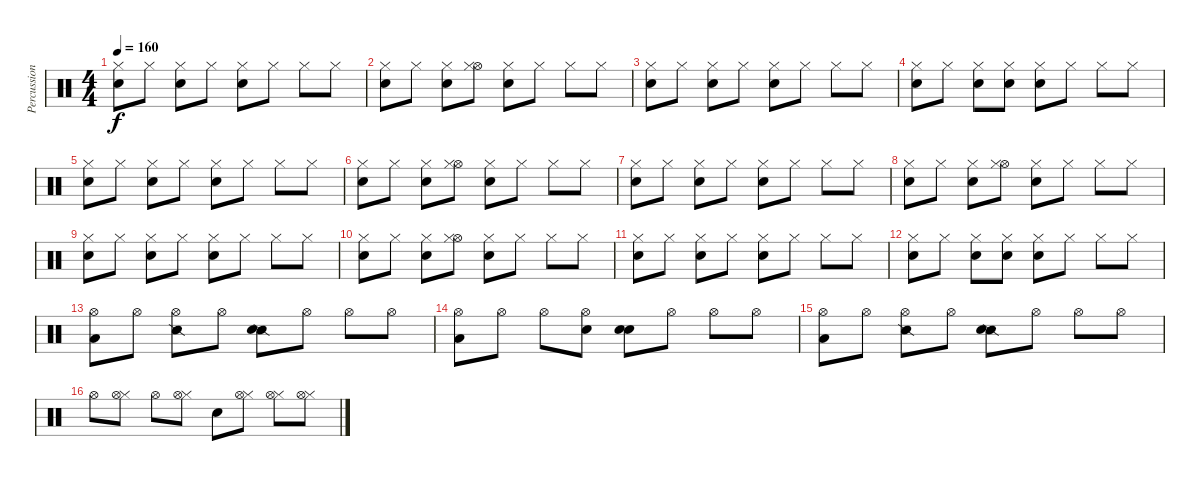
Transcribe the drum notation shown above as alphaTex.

\track ("Percussions" "Percussion") {instrument percussion}
\staff {score}
\articulation defaults
\ts (4 4)
\tempo 160
\clef neutral
\ks c
("Electric Snare (hit)" "Hi-Hat (closed)").8{dy f} "Hi-Hat (closed)".8 ("Electric Snare (hit)" "Hi-Hat (closed)").8 "Hi-Hat (closed)".8 ("Snare (hit) 2" "Hi-Hat (closed)").8 "Hi-Hat (closed)".8 "Hi-Hat (closed)".8 "Hi-Hat (closed)".8 |
("Electric Snare (hit)" "Hi-Hat (closed)").8 "Hi-Hat (closed)".8 ("Electric Snare (hit)" "Hi-Hat (closed)").8 ("Hi-Hat (open)" "Hi-Hat (closed)").8 ("Snare (hit) 2" "Hi-Hat (closed)").8 "Hi-Hat (closed)".8 "Hi-Hat (closed)".8 "Hi-Hat (closed)".8 |
("Electric Snare (hit)" "Hi-Hat (closed)").8 "Hi-Hat (closed)".8 ("Electric Snare (hit)" "Hi-Hat (closed)").8 "Hi-Hat (closed)".8 ("Snare (hit) 2" "Hi-Hat (closed)").8 "Hi-Hat (closed)".8 "Hi-Hat (closed)".8 "Hi-Hat (closed)".8 |
("Electric Snare (hit)" "Hi-Hat (closed)").8 "Hi-Hat (closed)".8 ("Electric Snare (hit)" "Hi-Hat (closed)").8 ("Electric Snare (hit)" "Hi-Hat (closed)").8 ("Snare (hit) 2" "Hi-Hat (closed)").8 "Hi-Hat (closed)".8 "Hi-Hat (closed)".8 "Hi-Hat (closed)".8 |
("Electric Snare (hit)" "Hi-Hat (closed)").8 "Hi-Hat (closed)".8 ("Electric Snare (hit)" "Hi-Hat (closed)").8 "Hi-Hat (closed)".8 ("Snare (hit) 2" "Hi-Hat (closed)").8 "Hi-Hat (closed)".8 "Hi-Hat (closed)".8 "Hi-Hat (closed)".8 |
("Electric Snare (hit)" "Hi-Hat (closed)").8 "Hi-Hat (closed)".8 ("Electric Snare (hit)" "Hi-Hat (closed)").8 ("Hi-Hat (open)" "Hi-Hat (closed)").8 ("Snare (hit) 2" "Hi-Hat (closed)").8 "Hi-Hat (closed)".8 "Hi-Hat (closed)".8 "Hi-Hat (closed)".8 |
("Electric Snare (hit)" "Hi-Hat (closed)").8 "Hi-Hat (closed)".8 ("Electric Snare (hit)" "Hi-Hat (closed)").8 "Hi-Hat (closed)".8 ("Snare (hit) 2" "Hi-Hat (closed)").8 "Hi-Hat (closed)".8 "Hi-Hat (closed)".8 "Hi-Hat (closed)".8 |
("Electric Snare (hit)" "Hi-Hat (closed)").8 "Hi-Hat (closed)".8 ("Electric Snare (hit)" "Hi-Hat (closed)").8 ("Hi-Hat (open)" "Hi-Hat (closed)").8 ("Snare (hit) 2" "Hi-Hat (closed)").8 "Hi-Hat (closed)".8 "Hi-Hat (closed)".8 "Hi-Hat (closed)".8 |
("Electric Snare (hit)" "Hi-Hat (closed)").8 "Hi-Hat (closed)".8 ("Electric Snare (hit)" "Hi-Hat (closed)").8 "Hi-Hat (closed)".8 ("Snare (hit) 2" "Hi-Hat (closed)").8 "Hi-Hat (closed)".8 "Hi-Hat (closed)".8 "Hi-Hat (closed)".8 |
("Electric Snare (hit)" "Hi-Hat (closed)").8 "Hi-Hat (closed)".8 ("Electric Snare (hit)" "Hi-Hat (closed)").8 ("Hi-Hat (open)" "Hi-Hat (closed)").8 ("Snare (hit) 2" "Hi-Hat (closed)").8 "Hi-Hat (closed)".8 "Hi-Hat (closed)".8 "Hi-Hat (closed)".8 |
("Electric Snare (hit)" "Hi-Hat (closed)").8 "Hi-Hat (closed)".8 ("Electric Snare (hit)" "Hi-Hat (closed)").8 "Hi-Hat (closed)".8 ("Snare (hit) 2" "Hi-Hat (closed)").8 "Hi-Hat (closed)".8 "Hi-Hat (closed)".8 "Hi-Hat (closed)".8 |
("Electric Snare (hit)" "Hi-Hat (closed)").8 "Hi-Hat (closed)".8 ("Electric Snare (hit)" "Hi-Hat (closed)").8 ("Electric Snare (hit)" "Hi-Hat (closed)").8 ("Snare (hit) 2" "Hi-Hat (closed)").8 "Hi-Hat (closed)".8 "Hi-Hat (closed)".8 "Hi-Hat (closed)".8 |
("Low Floor Tom (hit)" "Hi-Hat (open)").8 "Hi-Hat (open)".8 ("Snare (side stick) 2" "Hi-Hat (open)").8 "Hi-Hat (open)".8 ("Snare (side stick) 2" "Snare (hit) 2").8 "Hi-Hat (open)".8 "Hi-Hat (open)".8 "Hi-Hat (open)".8 |
("Low Floor Tom (hit)" "Hi-Hat (open)").8 "Hi-Hat (open)".8 "Hi-Hat (open)".8 ("Electric Snare (hit)" "Hi-Hat (open)").8 ("Electric Snare (hit)" "Snare (hit) 2").8 "Hi-Hat (open)".8 "Hi-Hat (open)".8 "Hi-Hat (open)".8 |
("Low Floor Tom (hit)" "Hi-Hat (open)").8 "Hi-Hat (open)".8 ("Snare (side stick) 2" "Hi-Hat (open)").8 "Hi-Hat (open)".8 ("Snare (side stick) 2" "Snare (hit) 2").8 "Hi-Hat (open)".8 "Hi-Hat (open)".8 "Hi-Hat (open)".8 |
"Hi-Hat (open)".8 ("Hi-Hat (closed)" "Hi-Hat (open)").8 "Hi-Hat (open)".8 ("Hi-Hat (closed)" "Hi-Hat (open)").8 "Snare (hit) 2".8 ("Hi-Hat (closed)" "Hi-Hat (open)").8 ("Hi-Hat (closed)" "Hi-Hat (open)").8 ("Hi-Hat (closed)" "Hi-Hat (open)").8
